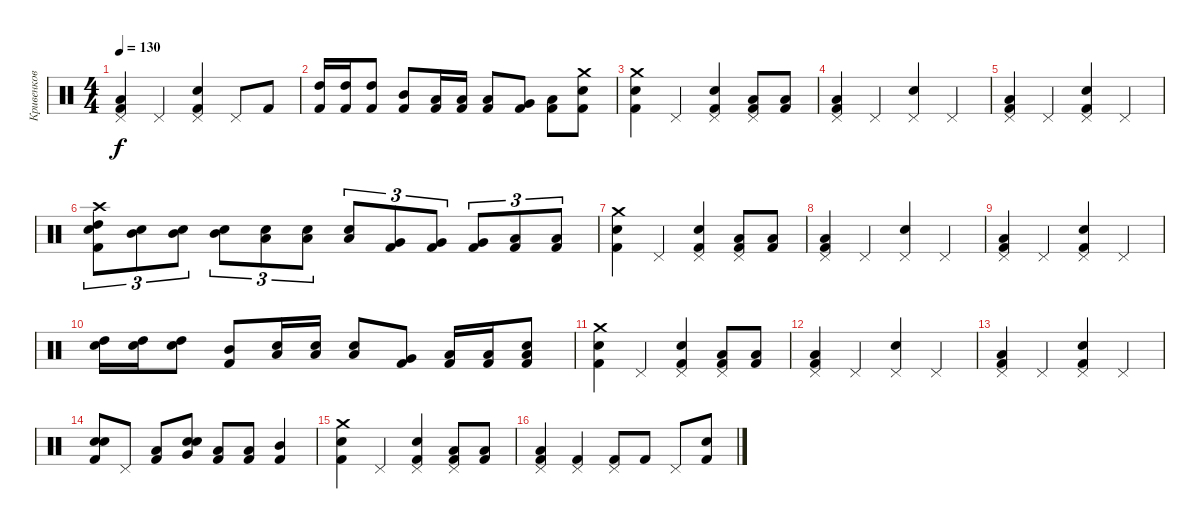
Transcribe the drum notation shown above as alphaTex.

\track ("Кривенков Дмитрий" "Кривенков ") {instrument percussion}
\staff {score}
\articulation defaults
\ts (4 4)
\tempo 130
\clef neutral
\ks c
("Kick (hit) 2" "Pedal Hi-Hat (hit)" "Low Floor Tom (hit)").4{dy f} "Pedal Hi-Hat (hit)".4 ("Kick (hit) 2" "Pedal Hi-Hat (hit)" "Electric Snare (hit)").4 "Pedal Hi-Hat (hit)".8 "Kick (hit) 2".8 |
("High Tom (hit)" "Kick (hit) 2").16 ("High Tom (hit)" "Kick (hit) 2").16 ("High Tom (hit)" "Kick (hit) 2").8 ("Mid Tom (hit)" "Kick (hit) 2").8 ("Low Tom (hit)" "Kick (hit) 2").16 ("Low Tom (hit)" "Kick (hit) 2").16 ("Low Tom (hit)" "Kick (hit) 2").8 ("Very Low Tom (hit)" "Kick (hit) 2").8 ("Low Floor Tom (hit)" "Kick (hit) 2").8 ("Electric Snare (hit)" "Kick (hit) 2" "Crash medium (hit)").8 |
("Kick (hit) 2" "Electric Snare (hit)" "Crash medium (hit)").4 "Pedal Hi-Hat (hit)".4 ("Pedal Hi-Hat (hit)" "Kick (hit) 2" "Electric Snare (hit)").4 ("Kick (hit) 2" "Pedal Hi-Hat (hit)" "Low Floor Tom (hit)").8 ("Low Floor Tom (hit)" "Kick (hit) 2").8 |
("Kick (hit) 2" "Pedal Hi-Hat (hit)" "Low Floor Tom (hit)").4 "Pedal Hi-Hat (hit)".4 ("Pedal Hi-Hat (hit)" "Electric Snare (hit)").4 "Pedal Hi-Hat (hit)".4 |
("Kick (hit) 2" "Pedal Hi-Hat (hit)" "Low Floor Tom (hit)").4 "Pedal Hi-Hat (hit)".4 ("Kick (hit) 2" "Pedal Hi-Hat (hit)" "Electric Snare (hit)").4 "Pedal Hi-Hat (hit)".4 |
("Crash high (hit)" "High Tom (hit)" "Kick (hit) 2" "Electric Snare (hit)").8{tu (3 2)} ("Mid Tom (hit)" "Snare (hit) 2").8{tu (3 2)} ("Mid Tom (hit)" "Snare (hit) 2").8{tu (3 2)} ("Mid Tom (hit)" "Snare (hit) 2").8{tu (3 2)} ("Low Tom (hit)" "Snare (hit) 2").8{tu (3 2)} ("Low Tom (hit)" "Snare (hit) 2").8{tu (3 2)} ("Low Tom (hit)" "Snare (hit) 2").8{tu (3 2)} ("Very Low Tom (hit)" "Kick (hit) 2").8{tu (3 2)} ("Very Low Tom (hit)" "Kick (hit) 2").8{tu (3 2)} ("Very Low Tom (hit)" "Kick (hit) 2").8{tu (3 2)} ("Low Floor Tom (hit)" "Kick (hit) 2").8{tu (3 2)} ("Low Floor Tom (hit)" "Kick (hit) 2").8{tu (3 2)} |
("Kick (hit) 2" "Electric Snare (hit)" "Crash medium (hit)").4 "Pedal Hi-Hat (hit)".4 ("Pedal Hi-Hat (hit)" "Kick (hit) 2" "Electric Snare (hit)").4 ("Kick (hit) 2" "Pedal Hi-Hat (hit)" "Low Floor Tom (hit)").8 ("Low Floor Tom (hit)" "Kick (hit) 2").8 |
("Kick (hit) 2" "Pedal Hi-Hat (hit)" "Low Floor Tom (hit)").4 "Pedal Hi-Hat (hit)".4 ("Pedal Hi-Hat (hit)" "Electric Snare (hit)").4 "Pedal Hi-Hat (hit)".4 |
("Kick (hit) 2" "Pedal Hi-Hat (hit)" "Low Floor Tom (hit)").4 "Pedal Hi-Hat (hit)".4 ("Kick (hit) 2" "Pedal Hi-Hat (hit)" "Electric Snare (hit)").4 "Pedal Hi-Hat (hit)".4 |
("High Tom (hit)" "Electric Snare (hit)").16 ("High Tom (hit)" "Electric Snare (hit)").16 ("High Tom (hit)" "Electric Snare (hit)").8 ("Mid Tom (hit)" "Kick (hit) 2").8 ("Low Tom (hit)" "Snare (hit) 2").16 ("Low Tom (hit)" "Snare (hit) 2").16 ("Low Tom (hit)" "Snare (hit) 2").8 ("Very Low Tom (hit)" "Kick (hit) 2").8 ("Low Floor Tom (hit)" "Kick (hit) 2").16 ("Low Floor Tom (hit)" "Kick (hit) 2").16 ("Low Floor Tom (hit)" "Electric Snare (hit)" "Kick (hit) 2").8 |
("Kick (hit) 2" "Electric Snare (hit)" "Crash medium (hit)").4 "Pedal Hi-Hat (hit)".4 ("Pedal Hi-Hat (hit)" "Kick (hit) 2" "Electric Snare (hit)").4 ("Kick (hit) 2" "Pedal Hi-Hat (hit)" "Low Floor Tom (hit)").8 ("Low Floor Tom (hit)" "Kick (hit) 2").8 |
("Kick (hit) 2" "Pedal Hi-Hat (hit)" "Low Floor Tom (hit)").4 "Pedal Hi-Hat (hit)".4 ("Pedal Hi-Hat (hit)" "Electric Snare (hit)").4 "Pedal Hi-Hat (hit)".4 |
("Kick (hit) 2" "Pedal Hi-Hat (hit)" "Low Floor Tom (hit)").4 "Pedal Hi-Hat (hit)".4 ("Kick (hit) 2" "Pedal Hi-Hat (hit)" "Electric Snare (hit)").4 "Pedal Hi-Hat (hit)".4 |
("Electric Snare (hit)" "Kick (hit) 2" "Snare (hit) 2").8 "Pedal Hi-Hat (hit)".8 ("Kick (hit) 2" "Low Floor Tom (hit)").8 ("Snare (hit) 2" "Electric Snare (hit)" "Very Low Tom (hit)").8 ("Kick (hit) 2" "Low Floor Tom (hit)").8 ("Kick (hit) 2" "Low Tom (hit)").8 ("Kick (hit) 2" "Mid Tom (hit)").4 |
("Kick (hit) 2" "Electric Snare (hit)" "Crash medium (hit)").4 "Pedal Hi-Hat (hit)".4 ("Pedal Hi-Hat (hit)" "Kick (hit) 2" "Electric Snare (hit)").4 ("Kick (hit) 2" "Pedal Hi-Hat (hit)" "Low Floor Tom (hit)").8 ("Low Floor Tom (hit)" "Kick (hit) 2").8 |
("Kick (hit) 2" "Pedal Hi-Hat (hit)" "Low Floor Tom (hit)").4 ("Kick (hit) 2" "Pedal Hi-Hat (hit)").4 ("Kick (hit) 2" "Pedal Hi-Hat (hit)").8 "Kick (hit) 2".8 "Pedal Hi-Hat (hit)".8 ("Electric Snare (hit)" "Kick (hit) 2").8
